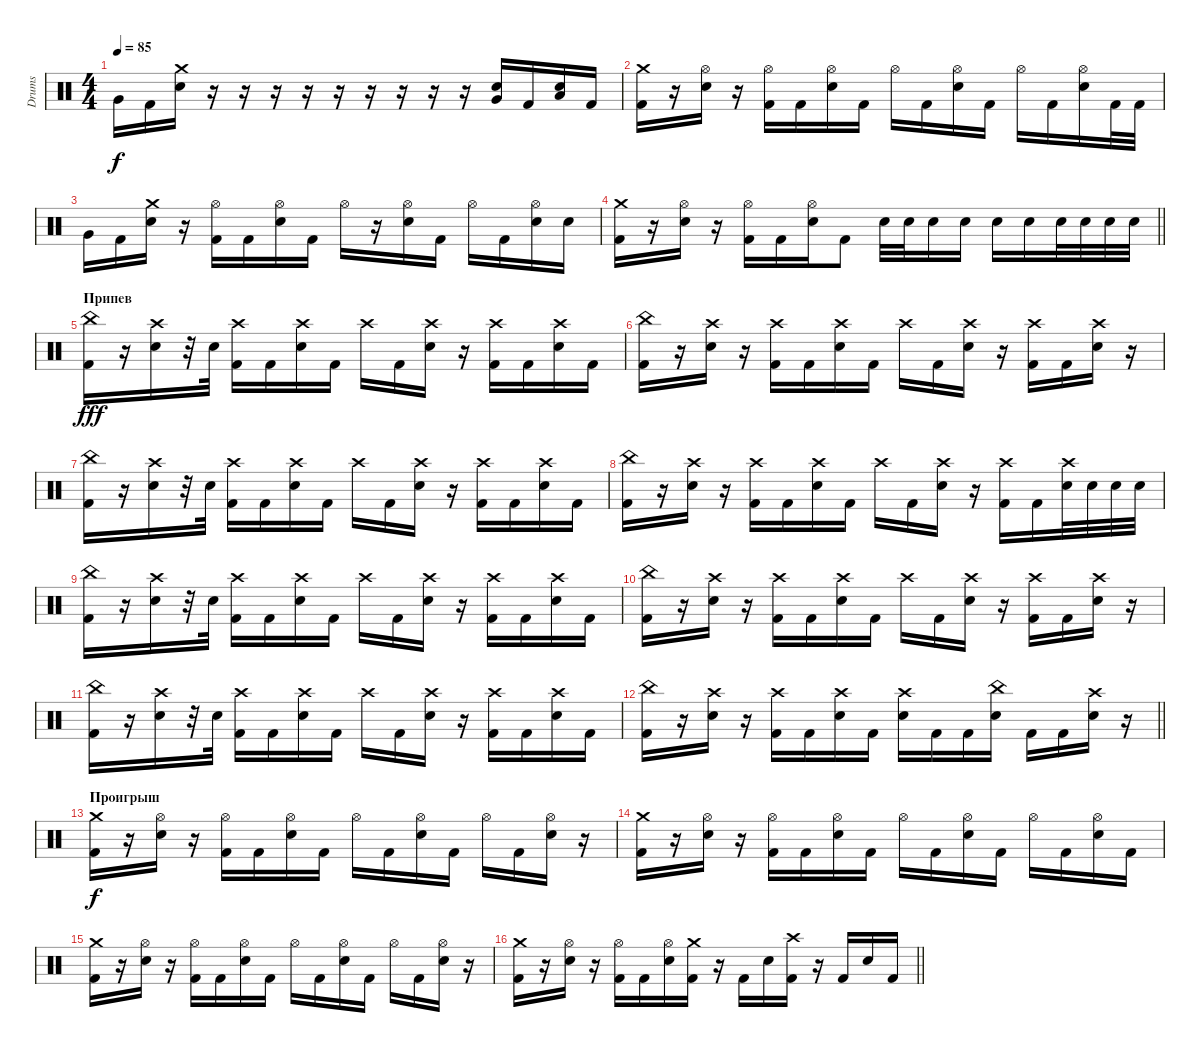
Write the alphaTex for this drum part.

\track ("Drums" "Drums") {instrument percussion}
\staff {score}
\articulation defaults
\ts (4 4)
\tempo 85
\clef neutral
\ks c "Very Low Tom (hit)".16{dy f} "Kick (hit) 2".16
("Crash medium (hit)" "Electric Snare (hit)").16 r.16 r.16 r.16 r.16 r.16 r.16 r.16 r.16 r.16 ("Very Low Tom (hit)" "Electric Snare (hit)").16 "Kick (hit) 2".16 ("Low Floor Tom (hit)" "Electric Snare (hit)").16 "Kick (hit) 2".16 |
("Crash medium (hit)" "Kick (hit) 2").16 r.16 ("Hi-Hat (open)" "Electric Snare (hit)").16 r.16 ("Hi-Hat (open)" "Kick (hit) 2").16 "Kick (hit) 2".16 ("Hi-Hat (open)" "Electric Snare (hit)").16 "Kick (hit) 2".16 "Hi-Hat (open)".16 "Kick (hit) 2".16 ("Hi-Hat (open)" "Electric Snare (hit)").16 "Kick (hit) 2".16 "Hi-Hat (open)".16 "Kick (hit) 2".16 ("Hi-Hat (open)" "Electric Snare (hit)").16 "Kick (hit) 2".32 "Kick (hit) 2".32 |
"Very Low Tom (hit)".16 "Kick (hit) 2".16 ("Crash medium (hit)" "Electric Snare (hit)").16 r.16 ("Hi-Hat (open)" "Kick (hit) 2").16 "Kick (hit) 2".16 ("Hi-Hat (open)" "Electric Snare (hit)").16 "Kick (hit) 2".16 "Hi-Hat (open)".16 r.16 ("Hi-Hat (open)" "Electric Snare (hit)").16 "Kick (hit) 2".16 "Hi-Hat (open)".16 "Kick (hit) 2".16 ("Hi-Hat (open)" "Electric Snare (hit)").16 "Electric Snare (hit)".16 |
\barLineRight lightlight
("Crash medium (hit)" "Kick (hit) 2").16 r.16 ("Hi-Hat (open)" "Electric Snare (hit)").16 r.16 ("Hi-Hat (open)" "Kick (hit) 2").16 "Kick (hit) 2".16 ("Hi-Hat (open)" "Electric Snare (hit)").16 "Kick (hit) 2".8 "Electric Snare (hit)".32 "Electric Snare (hit)".32 "Electric Snare (hit)".16 "Electric Snare (hit)".16 "Electric Snare (hit)".16 "Electric Snare (hit)".16 "Electric Snare (hit)".32 "Electric Snare (hit)".32 "Electric Snare (hit)".32 "Electric Snare (hit)".32 |
\section ("" "Припев")
("Kick (hit) 2" "China (hit)").16{dy fff} r.16 ("Electric Snare (hit)" "Crash high (hit)").16 r.32 "Electric Snare (hit)".32 ("Kick (hit) 2" "Crash high (hit)").16 "Kick (hit) 2".16 ("Electric Snare (hit)" "Crash high (hit)").16 "Kick (hit) 2".16 "Crash high (hit)".16 "Kick (hit) 2".16 ("Electric Snare (hit)" "Crash high (hit)").16 r.16 ("Kick (hit) 2" "Crash high (hit)").16 "Kick (hit) 2".16 ("Electric Snare (hit)" "Crash high (hit)").16 "Kick (hit) 2".16 |
("Kick (hit) 2" "China (hit)").16 r.16 ("Electric Snare (hit)" "Crash high (hit)").16 r.16 ("Kick (hit) 2" "Crash high (hit)").16 "Kick (hit) 2".16 ("Electric Snare (hit)" "Crash high (hit)").16 "Kick (hit) 2".16 "Crash high (hit)".16 "Kick (hit) 2".16 ("Electric Snare (hit)" "Crash high (hit)").16 r.16 ("Kick (hit) 2" "Crash high (hit)").16 "Kick (hit) 2".16 ("Electric Snare (hit)" "Crash high (hit)").16 r.16 |
("Kick (hit) 2" "China (hit)").16 r.16 ("Electric Snare (hit)" "Crash high (hit)").16 r.32 "Electric Snare (hit)".32 ("Kick (hit) 2" "Crash high (hit)").16 "Kick (hit) 2".16 ("Electric Snare (hit)" "Crash high (hit)").16 "Kick (hit) 2".16 "Crash high (hit)".16 "Kick (hit) 2".16 ("Electric Snare (hit)" "Crash high (hit)").16 r.16 ("Kick (hit) 2" "Crash high (hit)").16 "Kick (hit) 2".16 ("Electric Snare (hit)" "Crash high (hit)").16 "Kick (hit) 2".16 |
("Kick (hit) 2" "China (hit)").16 r.16 ("Electric Snare (hit)" "Crash high (hit)").16 r.16 ("Kick (hit) 2" "Crash high (hit)").16 "Kick (hit) 2".16 ("Electric Snare (hit)" "Crash high (hit)").16 "Kick (hit) 2".16 "Crash high (hit)".16 "Kick (hit) 2".16 ("Electric Snare (hit)" "Crash high (hit)").16 r.16 ("Kick (hit) 2" "Crash high (hit)").16 "Kick (hit) 2".16 ("Electric Snare (hit)" "Crash high (hit)").32 "Electric Snare (hit)".32 "Electric Snare (hit)".32 "Electric Snare (hit)".32 |
("Kick (hit) 2" "China (hit)").16 r.16 ("Electric Snare (hit)" "Crash high (hit)").16 r.32 "Electric Snare (hit)".32 ("Kick (hit) 2" "Crash high (hit)").16 "Kick (hit) 2".16 ("Electric Snare (hit)" "Crash high (hit)").16 "Kick (hit) 2".16 "Crash high (hit)".16 "Kick (hit) 2".16 ("Electric Snare (hit)" "Crash high (hit)").16 r.16 ("Kick (hit) 2" "Crash high (hit)").16 "Kick (hit) 2".16 ("Electric Snare (hit)" "Crash high (hit)").16 "Kick (hit) 2".16 |
("Kick (hit) 2" "China (hit)").16 r.16 ("Electric Snare (hit)" "Crash high (hit)").16 r.16 ("Kick (hit) 2" "Crash high (hit)").16 "Kick (hit) 2".16 ("Electric Snare (hit)" "Crash high (hit)").16 "Kick (hit) 2".16 "Crash high (hit)".16 "Kick (hit) 2".16 ("Electric Snare (hit)" "Crash high (hit)").16 r.16 ("Kick (hit) 2" "Crash high (hit)").16 "Kick (hit) 2".16 ("Electric Snare (hit)" "Crash high (hit)").16 r.16 |
("Kick (hit) 2" "China (hit)").16 r.16 ("Electric Snare (hit)" "Crash high (hit)").16 r.32 "Electric Snare (hit)".32 ("Kick (hit) 2" "Crash high (hit)").16 "Kick (hit) 2".16 ("Electric Snare (hit)" "Crash high (hit)").16 "Kick (hit) 2".16 "Crash high (hit)".16 "Kick (hit) 2".16 ("Electric Snare (hit)" "Crash high (hit)").16 r.16 ("Kick (hit) 2" "Crash high (hit)").16 "Kick (hit) 2".16 ("Electric Snare (hit)" "Crash high (hit)").16 "Kick (hit) 2".16 |
\barLineRight lightlight
("Kick (hit) 2" "China (hit)").16 r.16 ("Electric Snare (hit)" "Crash high (hit)").16 r.16 ("Kick (hit) 2" "Crash high (hit)").16 "Kick (hit) 2".16 ("Electric Snare (hit)" "Crash high (hit)").16 "Kick (hit) 2".16 ("Electric Snare (hit)" "Crash high (hit)").16 "Kick (hit) 2".16 "Kick (hit) 2".16 ("Electric Snare (hit)" "China (hit)").16 "Kick (hit) 2".16 "Kick (hit) 2".16 ("Electric Snare (hit)" "Crash high (hit)").16 r.16 |
\section ("" "Проигрыш")
("Crash medium (hit)" "Kick (hit) 2").16{dy f} r.16 ("Hi-Hat (open)" "Electric Snare (hit)").16 r.16 ("Hi-Hat (open)" "Kick (hit) 2").16 "Kick (hit) 2".16 ("Hi-Hat (open)" "Electric Snare (hit)").16 "Kick (hit) 2".16 "Hi-Hat (open)".16 "Kick (hit) 2".16 ("Hi-Hat (open)" "Electric Snare (hit)").16 "Kick (hit) 2".16 "Hi-Hat (open)".16 "Kick (hit) 2".16 ("Hi-Hat (open)" "Electric Snare (hit)").16 r.16 |
("Crash medium (hit)" "Kick (hit) 2").16 r.16 ("Hi-Hat (open)" "Electric Snare (hit)").16 r.16 ("Hi-Hat (open)" "Kick (hit) 2").16 "Kick (hit) 2".16 ("Hi-Hat (open)" "Electric Snare (hit)").16 "Kick (hit) 2".16 "Hi-Hat (open)".16 "Kick (hit) 2".16 ("Hi-Hat (open)" "Electric Snare (hit)").16 "Kick (hit) 2".16 "Hi-Hat (open)".16 "Kick (hit) 2".16 ("Hi-Hat (open)" "Electric Snare (hit)").16 "Kick (hit) 2".16 |
("Crash medium (hit)" "Kick (hit) 2").16 r.16 ("Hi-Hat (open)" "Electric Snare (hit)").16 r.16 ("Hi-Hat (open)" "Kick (hit) 2").16 "Kick (hit) 2".16 ("Hi-Hat (open)" "Electric Snare (hit)").16 "Kick (hit) 2".16 "Hi-Hat (open)".16 "Kick (hit) 2".16 ("Hi-Hat (open)" "Electric Snare (hit)").16 "Kick (hit) 2".16 "Hi-Hat (open)".16 "Kick (hit) 2".16 ("Hi-Hat (open)" "Electric Snare (hit)").16 r.16 |
\barLineRight lightlight
("Crash medium (hit)" "Kick (hit) 2").16 r.16 ("Hi-Hat (open)" "Electric Snare (hit)").16 r.16 ("Hi-Hat (open)" "Kick (hit) 2").16 "Kick (hit) 2".16 ("Hi-Hat (open)" "Electric Snare (hit)").16 ("Crash medium (hit)" "Kick (hit) 2").16 r.16 "Kick (hit) 2".16 "Electric Snare (hit)".16 ("Crash high (hit)" "Kick (hit) 2").16 r.16 "Kick (hit) 2".16 "Electric Snare (hit)".16 "Kick (hit) 2".16
